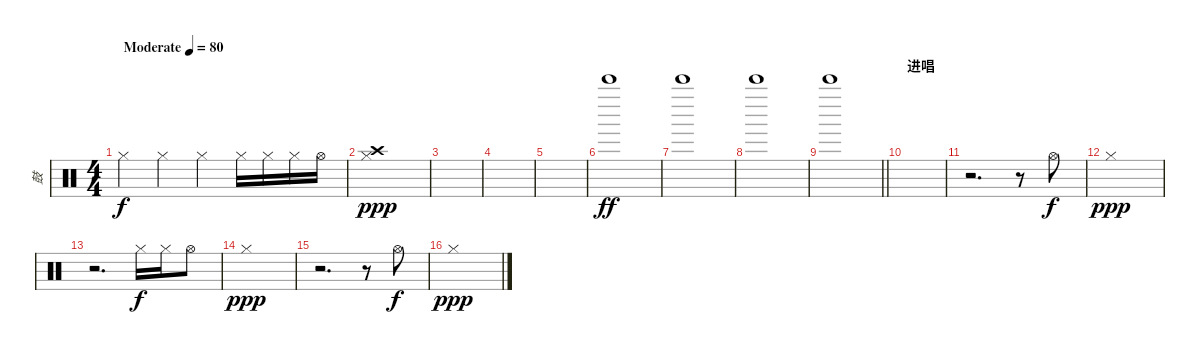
\track ("鼓" "鼓") {instrument percussion}
\staff {score}
\articulation defaults
\ts (4 4)
\tempo (80 "Moderate")
\clef neutral
\ks c "Hi-Hat (closed)".4{dy f} "Hi-Hat (closed)".4 "Hi-Hat (closed)".4 "Hi-Hat (closed)".16 "Hi-Hat (closed)".16 "Hi-Hat (closed)".16 "Hi-Hat (open)".16
|
("Crash high (hit)" "Hi-Hat (closed)").1{dy ppp} |
|
|
|
"Bell Tree (hit)".1{dy ff} |
"Bell Tree (hit)".1 |
"Bell Tree (hit)".1 |
\barLineRight lightlight "Bell Tree (hit)".1
|
\section ("" "进唱")
|
r.2{d} r.8 "Hi-Hat (open)".8{dy f} |
"Hi-Hat (closed)".1{dy ppp} |
r.2{d} "Hi-Hat (closed)".16{dy f} "Hi-Hat (closed)".16 "Hi-Hat (open)".8 |
"Hi-Hat (closed)".1{dy ppp} |
r.2{d} r.8 "Hi-Hat (open)".8{dy f} |
"Hi-Hat (closed)".1{dy ppp}
